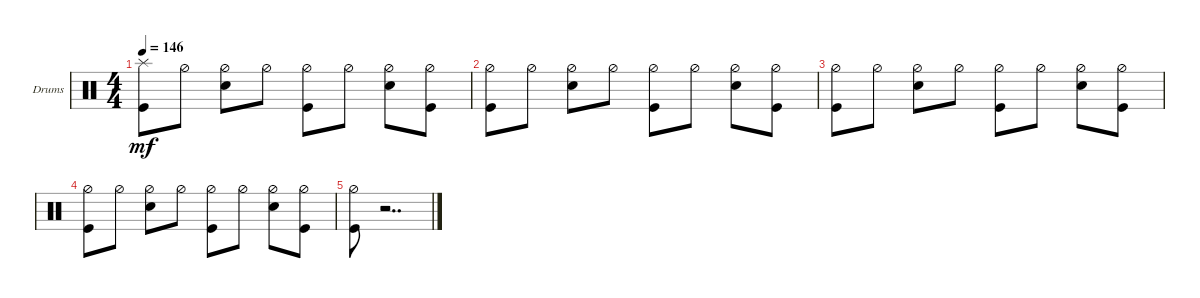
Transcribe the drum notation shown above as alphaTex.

\defaultSystemsLayout 4
\bracketExtendMode groupsimilarinstruments
\firstSystemTrackNameOrientation horizontal
\otherSystemsTrackNameOrientation horizontal
\track ("Drums" "Drums") {instrument percussion}
\staff {score}
\articulation defaults
\ts (4 4)
\tempo 146
\clef neutral
\ks c
("Kick (hit)" "Splash (hit)").8{dy mf} "Hi-Hat (half)".8 ("Snare (hit) 2" "Hi-Hat (half)").8 "Hi-Hat (half)".8 ("Hi-Hat (half)" "Kick (hit)").8 "Hi-Hat (half)".8 ("Hi-Hat (half)" "Snare (hit) 2").8 ("Hi-Hat (half)" "Kick (hit)").8 |
("Kick (hit)" "Hi-Hat (half)").8 "Hi-Hat (half)".8 ("Snare (hit) 2" "Hi-Hat (half)").8 "Hi-Hat (half)".8 ("Hi-Hat (half)" "Kick (hit)").8 "Hi-Hat (half)".8 ("Hi-Hat (half)" "Snare (hit) 2").8 ("Hi-Hat (half)" "Kick (hit)").8 |
("Kick (hit)" "Hi-Hat (half)").8 "Hi-Hat (half)".8 ("Snare (hit) 2" "Hi-Hat (half)").8 "Hi-Hat (half)".8 ("Hi-Hat (half)" "Kick (hit)").8 "Hi-Hat (half)".8 ("Hi-Hat (half)" "Snare (hit) 2").8 ("Hi-Hat (half)" "Kick (hit)").8 |
("Kick (hit)" "Hi-Hat (half)").8 "Hi-Hat (half)".8 ("Snare (hit) 2" "Hi-Hat (half)").8 "Hi-Hat (half)".8 ("Hi-Hat (half)" "Kick (hit)").8 "Hi-Hat (half)".8 ("Hi-Hat (half)" "Snare (hit) 2").8 ("Hi-Hat (half)" "Kick (hit)").8 |
("Kick (hit)" "Hi-Hat (half)").8 r.2{dd}
